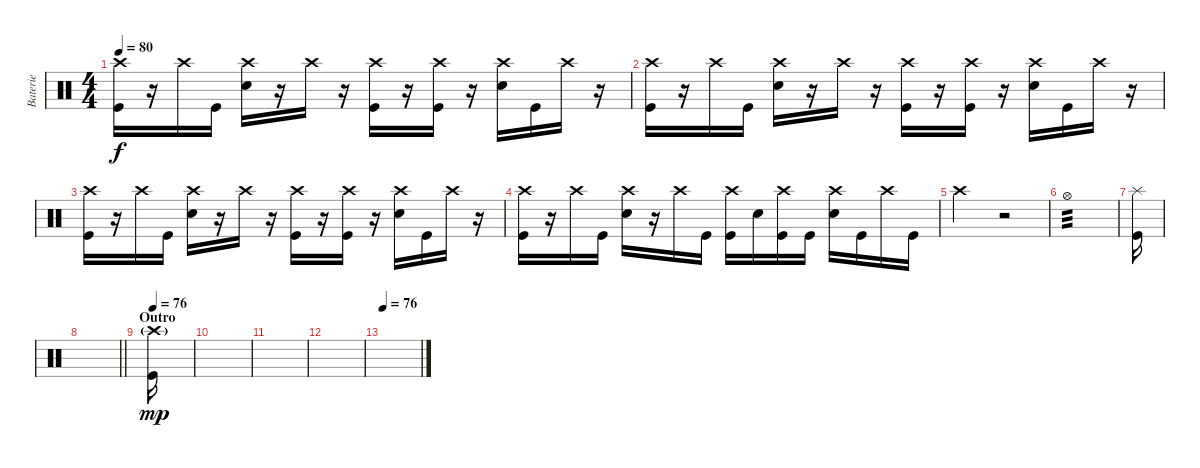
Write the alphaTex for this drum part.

\track ("Baterie" "Baterie") {instrument percussion}
\staff {score}
\articulation defaults
\ts (4 4)
\tempo 80
\clef neutral
\ks c
("Crash high (hit)" "Kick (hit)").16{dy f} r.16 "Crash high (hit)".16 "Kick (hit)".16 ("Crash high (hit)" "Electric Snare (hit)").16 r.16 "Crash high (hit)".16 r.16 ("Crash high (hit)" "Kick (hit)").16 r.16 ("Crash high (hit)" "Kick (hit)").16 r.16 ("Crash high (hit)" "Electric Snare (hit)").16 "Kick (hit)".16 "Crash high (hit)".16 r.16 |
("Crash high (hit)" "Kick (hit)").16 r.16 "Crash high (hit)".16 "Kick (hit)".16 ("Crash high (hit)" "Electric Snare (hit)").16 r.16 "Crash high (hit)".16 r.16 ("Crash high (hit)" "Kick (hit)").16 r.16 ("Crash high (hit)" "Kick (hit)").16 r.16 ("Crash high (hit)" "Electric Snare (hit)").16 "Kick (hit)".16 "Crash high (hit)".16 r.16 |
("Crash high (hit)" "Kick (hit)").16 r.16 "Crash high (hit)".16 "Kick (hit)".16 ("Crash high (hit)" "Electric Snare (hit)").16 r.16 "Crash high (hit)".16 r.16 ("Crash high (hit)" "Kick (hit)").16 r.16 ("Crash high (hit)" "Kick (hit)").16 r.16 ("Crash high (hit)" "Electric Snare (hit)").16 "Kick (hit)".16 "Crash high (hit)".16 r.16 |
("Crash high (hit)" "Kick (hit)").16 r.16 "Crash high (hit)".16 "Kick (hit)".16 ("Crash high (hit)" "Electric Snare (hit)").16 r.16 "Crash high (hit)".16 "Kick (hit)".16 ("Crash high (hit)" "Kick (hit)").16 "Electric Snare (hit)".16 ("Crash high (hit)" "Kick (hit)").16 "Kick (hit)".16 ("Crash high (hit)" "Electric Snare (hit)").16 "Kick (hit)".16 "Crash high (hit)".16 "Kick (hit)".16 |
"Crash high (hit)".2 r.2{volume 0} |
"Hi-Hat (open)".1{tp 3 volume 13} |
("Splash (hit)" "Kick (hit)").16 |
\barLineRight lightlight
|
\section ("" "Outro")
\tempo 76
("Crash high (hit)"{g} "Kick (hit)").16{dy mp} |
|
|
|
\tempo 76
